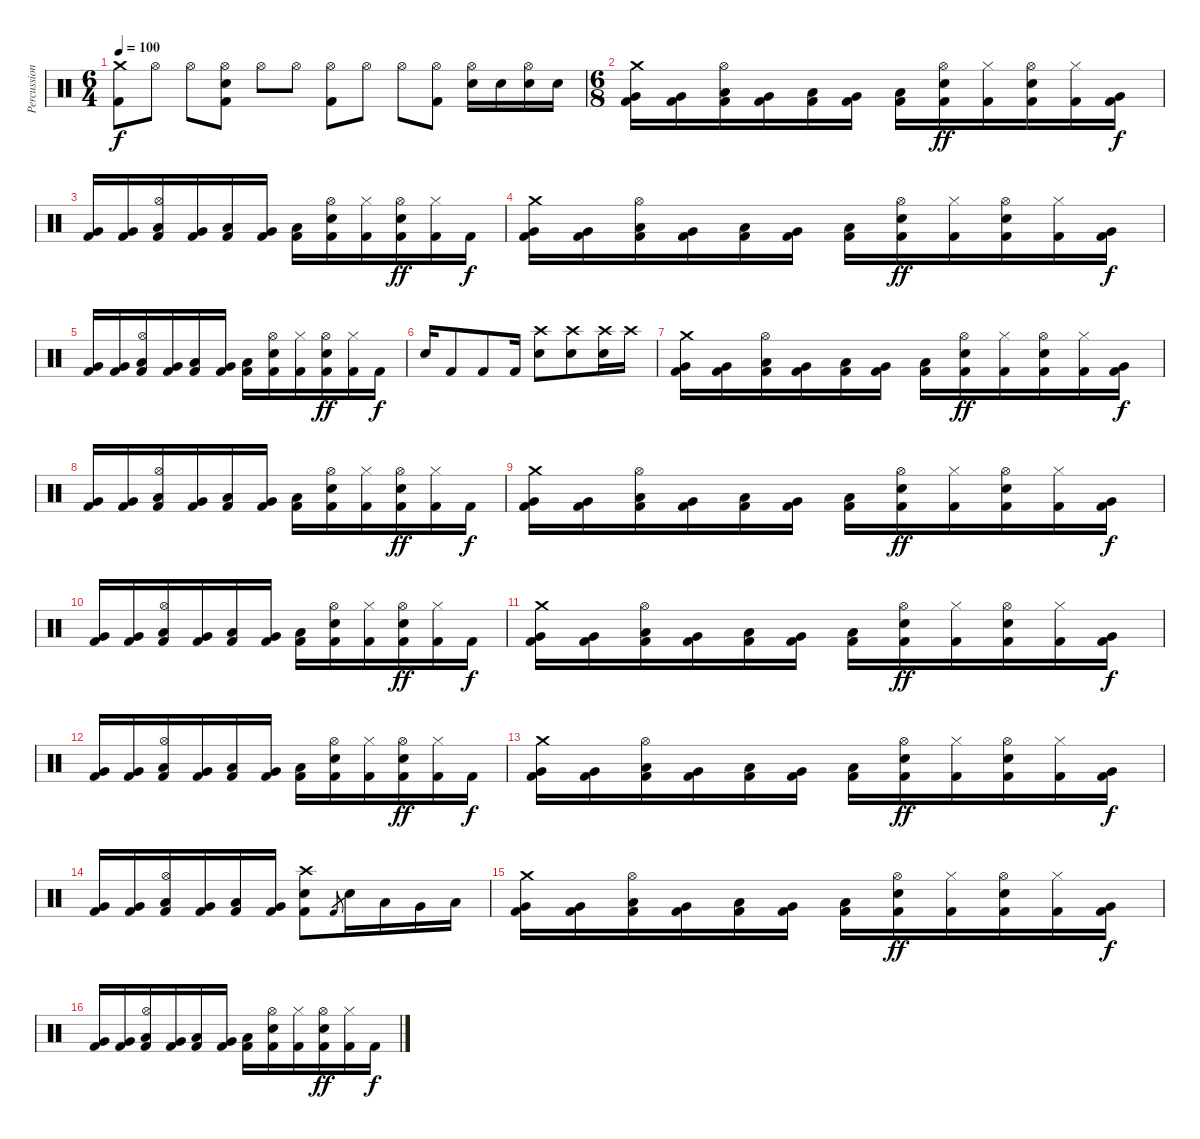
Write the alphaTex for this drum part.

\track ("Percussion" "Percussion") {instrument percussion}
\staff {score}
\articulation defaults
\ts (6 4)
\tempo 100
\clef neutral
\ks c
("Crash medium (hit)" "Kick (hit) 2").8{dy f} "Hi-Hat (open)".8 "Hi-Hat (open)".8 ("Hi-Hat (open)" "Electric Snare (hit)" "Kick (hit) 2").8 "Hi-Hat (open)".8 "Hi-Hat (open)".8 ("Hi-Hat (open)" "Kick (hit) 2").8 "Hi-Hat (open)".8 "Hi-Hat (open)".8 ("Hi-Hat (open)" "Kick (hit) 2").8 ("Hi-Hat (open)" "Electric Snare (hit)").16 "Electric Snare (hit)".16 ("Hi-Hat (open)" "Electric Snare (hit)").16 "Electric Snare (hit)".16 |
\ts (6 8)
("Crash medium (hit)" "Very Low Tom (hit)" "Kick (hit) 2").16 ("Very Low Tom (hit)" "Kick (hit) 2").16 ("Hi-Hat (open)" "Low Tom (hit)" "Kick (hit) 2").16 ("Very Low Tom (hit)" "Kick (hit) 2").16 ("Low Tom (hit)" "Kick (hit) 2").16 ("Very Low Tom (hit)" "Kick (hit) 2").16 ("Low Tom (hit)" "Kick (hit) 2").16 ("Hi-Hat (open)" "Electric Snare (hit)" "Kick (hit) 2").16{dy ff} ("Hi-Hat (closed)" "Kick (hit) 2").16 ("Hi-Hat (open)" "Electric Snare (hit)" "Kick (hit) 2").16 ("Hi-Hat (closed)" "Kick (hit) 2").16 ("Very Low Tom (hit)" "Kick (hit) 2").16{dy f} |
("Very Low Tom (hit)" "Kick (hit) 2").16 ("Very Low Tom (hit)" "Kick (hit) 2").16 ("Hi-Hat (open)" "Low Tom (hit)" "Kick (hit) 2").16 ("Very Low Tom (hit)" "Kick (hit) 2").16 ("Low Tom (hit)" "Kick (hit) 2").16 ("Very Low Tom (hit)" "Kick (hit) 2").16 ("Low Tom (hit)" "Kick (hit) 2").16 ("Hi-Hat (open)" "Electric Snare (hit)" "Kick (hit) 2").16 ("Hi-Hat (closed)" "Kick (hit) 2").16 ("Hi-Hat (open)" "Electric Snare (hit)" "Kick (hit) 2").16{dy ff} ("Hi-Hat (closed)" "Kick (hit) 2").16 "Kick (hit) 2".16{dy f} |
("Crash medium (hit)" "Very Low Tom (hit)" "Kick (hit) 2").16 ("Very Low Tom (hit)" "Kick (hit) 2").16 ("Hi-Hat (open)" "Low Tom (hit)" "Kick (hit) 2").16 ("Very Low Tom (hit)" "Kick (hit) 2").16 ("Low Tom (hit)" "Kick (hit) 2").16 ("Very Low Tom (hit)" "Kick (hit) 2").16 ("Low Tom (hit)" "Kick (hit) 2").16 ("Hi-Hat (open)" "Electric Snare (hit)" "Kick (hit) 2").16{dy ff} ("Hi-Hat (closed)" "Kick (hit) 2").16 ("Hi-Hat (open)" "Electric Snare (hit)" "Kick (hit) 2").16 ("Hi-Hat (closed)" "Kick (hit) 2").16 ("Very Low Tom (hit)" "Kick (hit) 2").16{dy f} |
("Very Low Tom (hit)" "Kick (hit) 2").16 ("Very Low Tom (hit)" "Kick (hit) 2").16 ("Hi-Hat (open)" "Low Tom (hit)" "Kick (hit) 2").16 ("Very Low Tom (hit)" "Kick (hit) 2").16 ("Low Tom (hit)" "Kick (hit) 2").16 ("Very Low Tom (hit)" "Kick (hit) 2").16 ("Low Tom (hit)" "Kick (hit) 2").16 ("Hi-Hat (open)" "Electric Snare (hit)" "Kick (hit) 2").16 ("Hi-Hat (closed)" "Kick (hit) 2").16 ("Hi-Hat (open)" "Electric Snare (hit)" "Kick (hit) 2").16{dy ff} ("Hi-Hat (closed)" "Kick (hit) 2").16 "Kick (hit) 2".16{dy f} |
"Electric Snare (hit)".16 "Kick (hit) 2".8 "Kick (hit) 2".8 "Kick (hit) 2".16 ("Crash high (hit)" "Electric Snare (hit)").8 ("Crash high (hit)" "Electric Snare (hit)").8 ("Crash high (hit)" "Electric Snare (hit)").16 "Crash high (hit)".16 |
("Crash medium (hit)" "Very Low Tom (hit)" "Kick (hit) 2").16 ("Very Low Tom (hit)" "Kick (hit) 2").16 ("Hi-Hat (open)" "Low Tom (hit)" "Kick (hit) 2").16 ("Very Low Tom (hit)" "Kick (hit) 2").16 ("Low Tom (hit)" "Kick (hit) 2").16 ("Very Low Tom (hit)" "Kick (hit) 2").16 ("Low Tom (hit)" "Kick (hit) 2").16 ("Hi-Hat (open)" "Electric Snare (hit)" "Kick (hit) 2").16{dy ff} ("Hi-Hat (closed)" "Kick (hit) 2").16 ("Hi-Hat (open)" "Electric Snare (hit)" "Kick (hit) 2").16 ("Hi-Hat (closed)" "Kick (hit) 2").16 ("Very Low Tom (hit)" "Kick (hit) 2").16{dy f} |
("Very Low Tom (hit)" "Kick (hit) 2").16 ("Very Low Tom (hit)" "Kick (hit) 2").16 ("Hi-Hat (open)" "Low Tom (hit)" "Kick (hit) 2").16 ("Very Low Tom (hit)" "Kick (hit) 2").16 ("Low Tom (hit)" "Kick (hit) 2").16 ("Very Low Tom (hit)" "Kick (hit) 2").16 ("Low Tom (hit)" "Kick (hit) 2").16 ("Hi-Hat (open)" "Electric Snare (hit)" "Kick (hit) 2").16 ("Hi-Hat (closed)" "Kick (hit) 2").16 ("Hi-Hat (open)" "Electric Snare (hit)" "Kick (hit) 2").16{dy ff} ("Hi-Hat (closed)" "Kick (hit) 2").16 "Kick (hit) 2".16{dy f} |
("Crash medium (hit)" "Very Low Tom (hit)" "Kick (hit) 2").16 ("Very Low Tom (hit)" "Kick (hit) 2").16 ("Hi-Hat (open)" "Low Tom (hit)" "Kick (hit) 2").16 ("Very Low Tom (hit)" "Kick (hit) 2").16 ("Low Tom (hit)" "Kick (hit) 2").16 ("Very Low Tom (hit)" "Kick (hit) 2").16 ("Low Tom (hit)" "Kick (hit) 2").16 ("Hi-Hat (open)" "Electric Snare (hit)" "Kick (hit) 2").16{dy ff} ("Hi-Hat (closed)" "Kick (hit) 2").16 ("Hi-Hat (open)" "Electric Snare (hit)" "Kick (hit) 2").16 ("Hi-Hat (closed)" "Kick (hit) 2").16 ("Very Low Tom (hit)" "Kick (hit) 2").16{dy f} |
("Very Low Tom (hit)" "Kick (hit) 2").16 ("Very Low Tom (hit)" "Kick (hit) 2").16 ("Hi-Hat (open)" "Low Tom (hit)" "Kick (hit) 2").16 ("Very Low Tom (hit)" "Kick (hit) 2").16 ("Low Tom (hit)" "Kick (hit) 2").16 ("Very Low Tom (hit)" "Kick (hit) 2").16 ("Low Tom (hit)" "Kick (hit) 2").16 ("Hi-Hat (open)" "Electric Snare (hit)" "Kick (hit) 2").16 ("Hi-Hat (closed)" "Kick (hit) 2").16 ("Hi-Hat (open)" "Electric Snare (hit)" "Kick (hit) 2").16{dy ff} ("Hi-Hat (closed)" "Kick (hit) 2").16 "Kick (hit) 2".16{dy f} |
("Crash medium (hit)" "Very Low Tom (hit)" "Kick (hit) 2").16 ("Very Low Tom (hit)" "Kick (hit) 2").16 ("Hi-Hat (open)" "Low Tom (hit)" "Kick (hit) 2").16 ("Very Low Tom (hit)" "Kick (hit) 2").16 ("Low Tom (hit)" "Kick (hit) 2").16 ("Very Low Tom (hit)" "Kick (hit) 2").16 ("Low Tom (hit)" "Kick (hit) 2").16 ("Hi-Hat (open)" "Electric Snare (hit)" "Kick (hit) 2").16{dy ff} ("Hi-Hat (closed)" "Kick (hit) 2").16 ("Hi-Hat (open)" "Electric Snare (hit)" "Kick (hit) 2").16 ("Hi-Hat (closed)" "Kick (hit) 2").16 ("Very Low Tom (hit)" "Kick (hit) 2").16{dy f} |
("Very Low Tom (hit)" "Kick (hit) 2").16 ("Very Low Tom (hit)" "Kick (hit) 2").16 ("Hi-Hat (open)" "Low Tom (hit)" "Kick (hit) 2").16 ("Very Low Tom (hit)" "Kick (hit) 2").16 ("Low Tom (hit)" "Kick (hit) 2").16 ("Very Low Tom (hit)" "Kick (hit) 2").16 ("Low Tom (hit)" "Kick (hit) 2").16 ("Hi-Hat (open)" "Electric Snare (hit)" "Kick (hit) 2").16 ("Hi-Hat (closed)" "Kick (hit) 2").16 ("Hi-Hat (open)" "Electric Snare (hit)" "Kick (hit) 2").16{dy ff} ("Hi-Hat (closed)" "Kick (hit) 2").16 "Kick (hit) 2".16{dy f} |
("Crash medium (hit)" "Very Low Tom (hit)" "Kick (hit) 2").16 ("Very Low Tom (hit)" "Kick (hit) 2").16 ("Hi-Hat (open)" "Low Tom (hit)" "Kick (hit) 2").16 ("Very Low Tom (hit)" "Kick (hit) 2").16 ("Low Tom (hit)" "Kick (hit) 2").16 ("Very Low Tom (hit)" "Kick (hit) 2").16 ("Low Tom (hit)" "Kick (hit) 2").16 ("Hi-Hat (open)" "Electric Snare (hit)" "Kick (hit) 2").16{dy ff} ("Hi-Hat (closed)" "Kick (hit) 2").16 ("Hi-Hat (open)" "Electric Snare (hit)" "Kick (hit) 2").16 ("Hi-Hat (closed)" "Kick (hit) 2").16 ("Very Low Tom (hit)" "Kick (hit) 2").16{dy f} |
("Very Low Tom (hit)" "Kick (hit) 2").16 ("Very Low Tom (hit)" "Kick (hit) 2").16 ("Hi-Hat (open)" "Low Tom (hit)" "Kick (hit) 2").16 ("Very Low Tom (hit)" "Kick (hit) 2").16 ("Low Tom (hit)" "Kick (hit) 2").16 ("Very Low Tom (hit)" "Kick (hit) 2").16 ("Crash high (hit)" "Electric Snare (hit)" "Kick (hit) 2").8 "Kick (hit) 2".8{gr} "Electric Snare (hit)".16 "Low Tom (hit)".16 "Very Low Tom (hit)".16 "Low Floor Tom (hit)".16 |
("Crash medium (hit)" "Very Low Tom (hit)" "Kick (hit) 2").16 ("Very Low Tom (hit)" "Kick (hit) 2").16 ("Hi-Hat (open)" "Low Tom (hit)" "Kick (hit) 2").16 ("Very Low Tom (hit)" "Kick (hit) 2").16 ("Low Tom (hit)" "Kick (hit) 2").16 ("Very Low Tom (hit)" "Kick (hit) 2").16 ("Low Tom (hit)" "Kick (hit) 2").16 ("Hi-Hat (open)" "Electric Snare (hit)" "Kick (hit) 2").16{dy ff} ("Hi-Hat (closed)" "Kick (hit) 2").16 ("Hi-Hat (open)" "Electric Snare (hit)" "Kick (hit) 2").16 ("Hi-Hat (closed)" "Kick (hit) 2").16 ("Very Low Tom (hit)" "Kick (hit) 2").16{dy f} |
("Very Low Tom (hit)" "Kick (hit) 2").16 ("Very Low Tom (hit)" "Kick (hit) 2").16 ("Hi-Hat (open)" "Low Tom (hit)" "Kick (hit) 2").16 ("Very Low Tom (hit)" "Kick (hit) 2").16 ("Low Tom (hit)" "Kick (hit) 2").16 ("Very Low Tom (hit)" "Kick (hit) 2").16 ("Low Tom (hit)" "Kick (hit) 2").16 ("Hi-Hat (open)" "Electric Snare (hit)" "Kick (hit) 2").16 ("Hi-Hat (closed)" "Kick (hit) 2").16 ("Hi-Hat (open)" "Electric Snare (hit)" "Kick (hit) 2").16{dy ff} ("Hi-Hat (closed)" "Kick (hit) 2").16 "Kick (hit) 2".16{dy f}
